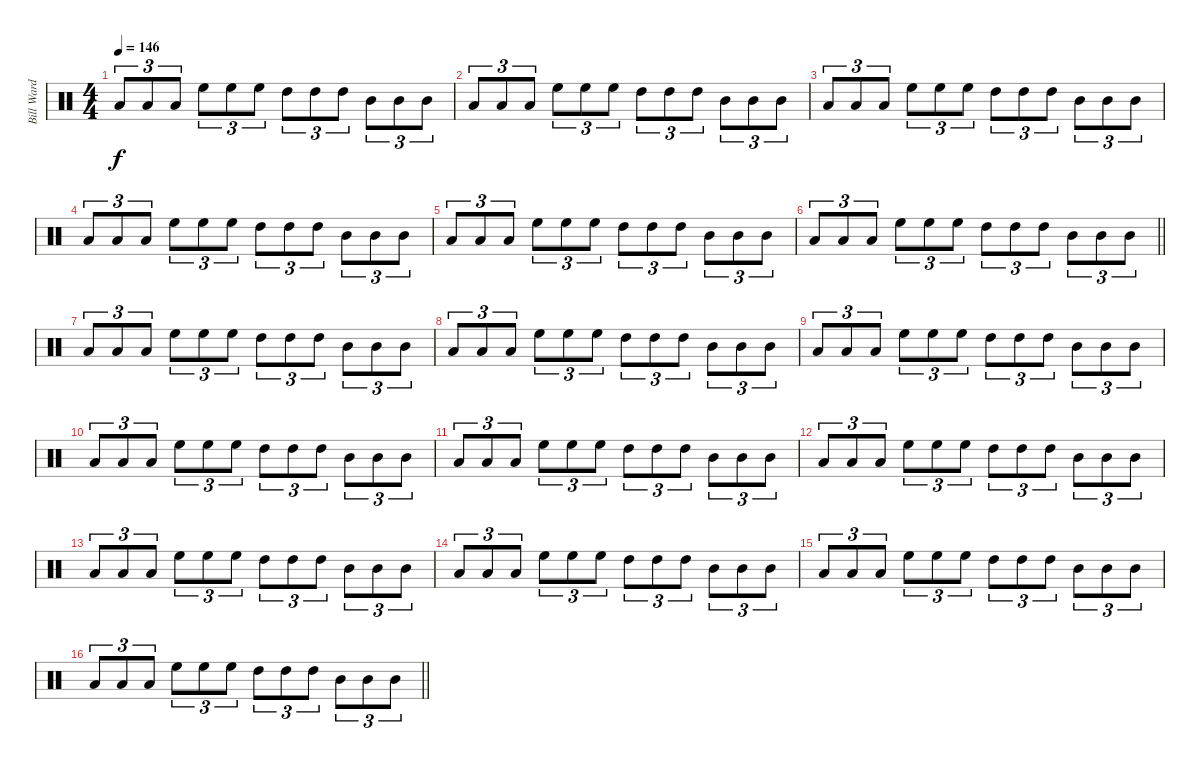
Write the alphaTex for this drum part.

\track ("Bill Ward - Drum Fills" "Bill Ward ") {instrument percussion}
\staff {score}
\articulation defaults
\ts (4 4)
\tempo 146
\clef neutral
\ks c "Low Tom (hit)".8{tu (3 2) dy f} "Low Tom (hit)".8{tu (3 2)} "Low Tom (hit)".8{tu (3 2)} "High Floor Tom (hit)".8{tu (3 2)} "High Floor Tom (hit)".8{tu (3 2)} "High Floor Tom (hit)".8{tu (3 2)} "High Tom (hit)".8{tu (3 2)} "High Tom (hit)".8{tu (3 2)} "High Tom (hit)".8{tu (3 2)} "Mid Tom (hit)".8{tu (3 2)} "Mid Tom (hit)".8{tu (3 2)} "Mid Tom (hit)".8{tu (3 2)}
|
"Low Tom (hit)".8{tu (3 2)} "Low Tom (hit)".8{tu (3 2)} "Low Tom (hit)".8{tu (3 2)} "High Floor Tom (hit)".8{tu (3 2)} "High Floor Tom (hit)".8{tu (3 2)} "High Floor Tom (hit)".8{tu (3 2)} "High Tom (hit)".8{tu (3 2)} "High Tom (hit)".8{tu (3 2)} "High Tom (hit)".8{tu (3 2)} "Mid Tom (hit)".8{tu (3 2)} "Mid Tom (hit)".8{tu (3 2)} "Mid Tom (hit)".8{tu (3 2)} |
"Low Tom (hit)".8{tu (3 2)} "Low Tom (hit)".8{tu (3 2)} "Low Tom (hit)".8{tu (3 2)} "High Floor Tom (hit)".8{tu (3 2)} "High Floor Tom (hit)".8{tu (3 2)} "High Floor Tom (hit)".8{tu (3 2)} "High Tom (hit)".8{tu (3 2)} "High Tom (hit)".8{tu (3 2)} "High Tom (hit)".8{tu (3 2)} "Mid Tom (hit)".8{tu (3 2)} "Mid Tom (hit)".8{tu (3 2)} "Mid Tom (hit)".8{tu (3 2)} |
"Low Tom (hit)".8{tu (3 2)} "Low Tom (hit)".8{tu (3 2)} "Low Tom (hit)".8{tu (3 2)} "High Floor Tom (hit)".8{tu (3 2)} "High Floor Tom (hit)".8{tu (3 2)} "High Floor Tom (hit)".8{tu (3 2)} "High Tom (hit)".8{tu (3 2)} "High Tom (hit)".8{tu (3 2)} "High Tom (hit)".8{tu (3 2)} "Mid Tom (hit)".8{tu (3 2)} "Mid Tom (hit)".8{tu (3 2)} "Mid Tom (hit)".8{tu (3 2)} |
"Low Tom (hit)".8{tu (3 2)} "Low Tom (hit)".8{tu (3 2)} "Low Tom (hit)".8{tu (3 2)} "High Floor Tom (hit)".8{tu (3 2)} "High Floor Tom (hit)".8{tu (3 2)} "High Floor Tom (hit)".8{tu (3 2)} "High Tom (hit)".8{tu (3 2)} "High Tom (hit)".8{tu (3 2)} "High Tom (hit)".8{tu (3 2)} "Mid Tom (hit)".8{tu (3 2)} "Mid Tom (hit)".8{tu (3 2)} "Mid Tom (hit)".8{tu (3 2)} |
\barLineRight lightlight "Low Tom (hit)".8{tu (3 2)} "Low Tom (hit)".8{tu (3 2)} "Low Tom (hit)".8{tu (3 2)} "High Floor Tom (hit)".8{tu (3 2)} "High Floor Tom (hit)".8{tu (3 2)} "High Floor Tom (hit)".8{tu (3 2)} "High Tom (hit)".8{tu (3 2)} "High Tom (hit)".8{tu (3 2)} "High Tom (hit)".8{tu (3 2)} "Mid Tom (hit)".8{tu (3 2)} "Mid Tom (hit)".8{tu (3 2)} "Mid Tom (hit)".8{tu (3 2)}
|
"Low Tom (hit)".8{tu (3 2)} "Low Tom (hit)".8{tu (3 2)} "Low Tom (hit)".8{tu (3 2)} "High Floor Tom (hit)".8{tu (3 2)} "High Floor Tom (hit)".8{tu (3 2)} "High Floor Tom (hit)".8{tu (3 2)} "High Tom (hit)".8{tu (3 2)} "High Tom (hit)".8{tu (3 2)} "High Tom (hit)".8{tu (3 2)} "Mid Tom (hit)".8{tu (3 2)} "Mid Tom (hit)".8{tu (3 2)} "Mid Tom (hit)".8{tu (3 2)} |
"Low Tom (hit)".8{tu (3 2)} "Low Tom (hit)".8{tu (3 2)} "Low Tom (hit)".8{tu (3 2)} "High Floor Tom (hit)".8{tu (3 2)} "High Floor Tom (hit)".8{tu (3 2)} "High Floor Tom (hit)".8{tu (3 2)} "High Tom (hit)".8{tu (3 2)} "High Tom (hit)".8{tu (3 2)} "High Tom (hit)".8{tu (3 2)} "Mid Tom (hit)".8{tu (3 2)} "Mid Tom (hit)".8{tu (3 2)} "Mid Tom (hit)".8{tu (3 2)} |
"Low Tom (hit)".8{tu (3 2)} "Low Tom (hit)".8{tu (3 2)} "Low Tom (hit)".8{tu (3 2)} "High Floor Tom (hit)".8{tu (3 2)} "High Floor Tom (hit)".8{tu (3 2)} "High Floor Tom (hit)".8{tu (3 2)} "High Tom (hit)".8{tu (3 2)} "High Tom (hit)".8{tu (3 2)} "High Tom (hit)".8{tu (3 2)} "Mid Tom (hit)".8{tu (3 2)} "Mid Tom (hit)".8{tu (3 2)} "Mid Tom (hit)".8{tu (3 2)} |
"Low Tom (hit)".8{tu (3 2)} "Low Tom (hit)".8{tu (3 2)} "Low Tom (hit)".8{tu (3 2)} "High Floor Tom (hit)".8{tu (3 2)} "High Floor Tom (hit)".8{tu (3 2)} "High Floor Tom (hit)".8{tu (3 2)} "High Tom (hit)".8{tu (3 2)} "High Tom (hit)".8{tu (3 2)} "High Tom (hit)".8{tu (3 2)} "Mid Tom (hit)".8{tu (3 2)} "Mid Tom (hit)".8{tu (3 2)} "Mid Tom (hit)".8{tu (3 2)} |
"Low Tom (hit)".8{tu (3 2)} "Low Tom (hit)".8{tu (3 2)} "Low Tom (hit)".8{tu (3 2)} "High Floor Tom (hit)".8{tu (3 2)} "High Floor Tom (hit)".8{tu (3 2)} "High Floor Tom (hit)".8{tu (3 2)} "High Tom (hit)".8{tu (3 2)} "High Tom (hit)".8{tu (3 2)} "High Tom (hit)".8{tu (3 2)} "Mid Tom (hit)".8{tu (3 2)} "Mid Tom (hit)".8{tu (3 2)} "Mid Tom (hit)".8{tu (3 2)} |
"Low Tom (hit)".8{tu (3 2)} "Low Tom (hit)".8{tu (3 2)} "Low Tom (hit)".8{tu (3 2)} "High Floor Tom (hit)".8{tu (3 2)} "High Floor Tom (hit)".8{tu (3 2)} "High Floor Tom (hit)".8{tu (3 2)} "High Tom (hit)".8{tu (3 2)} "High Tom (hit)".8{tu (3 2)} "High Tom (hit)".8{tu (3 2)} "Mid Tom (hit)".8{tu (3 2)} "Mid Tom (hit)".8{tu (3 2)} "Mid Tom (hit)".8{tu (3 2)} |
"Low Tom (hit)".8{tu (3 2)} "Low Tom (hit)".8{tu (3 2)} "Low Tom (hit)".8{tu (3 2)} "High Floor Tom (hit)".8{tu (3 2)} "High Floor Tom (hit)".8{tu (3 2)} "High Floor Tom (hit)".8{tu (3 2)} "High Tom (hit)".8{tu (3 2)} "High Tom (hit)".8{tu (3 2)} "High Tom (hit)".8{tu (3 2)} "Mid Tom (hit)".8{tu (3 2)} "Mid Tom (hit)".8{tu (3 2)} "Mid Tom (hit)".8{tu (3 2)} |
"Low Tom (hit)".8{tu (3 2)} "Low Tom (hit)".8{tu (3 2)} "Low Tom (hit)".8{tu (3 2)} "High Floor Tom (hit)".8{tu (3 2)} "High Floor Tom (hit)".8{tu (3 2)} "High Floor Tom (hit)".8{tu (3 2)} "High Tom (hit)".8{tu (3 2)} "High Tom (hit)".8{tu (3 2)} "High Tom (hit)".8{tu (3 2)} "Mid Tom (hit)".8{tu (3 2)} "Mid Tom (hit)".8{tu (3 2)} "Mid Tom (hit)".8{tu (3 2)} |
"Low Tom (hit)".8{tu (3 2)} "Low Tom (hit)".8{tu (3 2)} "Low Tom (hit)".8{tu (3 2)} "High Floor Tom (hit)".8{tu (3 2)} "High Floor Tom (hit)".8{tu (3 2)} "High Floor Tom (hit)".8{tu (3 2)} "High Tom (hit)".8{tu (3 2)} "High Tom (hit)".8{tu (3 2)} "High Tom (hit)".8{tu (3 2)} "Mid Tom (hit)".8{tu (3 2)} "Mid Tom (hit)".8{tu (3 2)} "Mid Tom (hit)".8{tu (3 2)} |
\barLineRight lightlight "Low Tom (hit)".8{tu (3 2)} "Low Tom (hit)".8{tu (3 2)} "Low Tom (hit)".8{tu (3 2)} "High Floor Tom (hit)".8{tu (3 2)} "High Floor Tom (hit)".8{tu (3 2)} "High Floor Tom (hit)".8{tu (3 2)} "High Tom (hit)".8{tu (3 2)} "High Tom (hit)".8{tu (3 2)} "High Tom (hit)".8{tu (3 2)} "Mid Tom (hit)".8{tu (3 2)} "Mid Tom (hit)".8{tu (3 2)} "Mid Tom (hit)".8{tu (3 2)}
